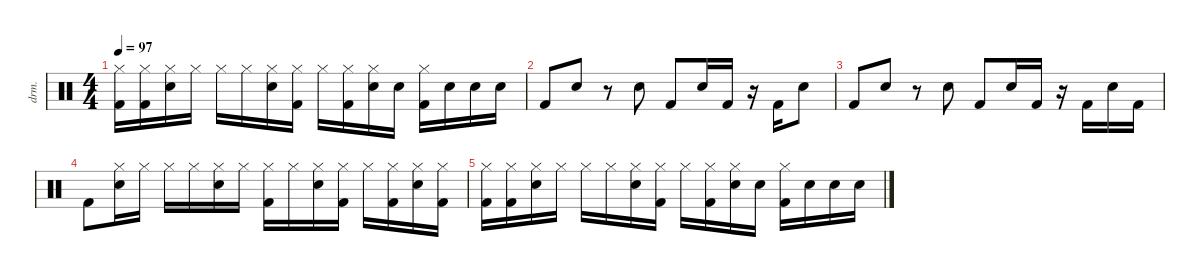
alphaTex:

\defaultSystemsLayout 4
\hideDynamics
\bracketExtendMode nobrackets
\track ("Drumkit" "drm.") {instrument percussion}
\staff {score}
\articulation defaults
\ts (4 4)
\tempo 97
\clef neutral
\ks c
("Hi-Hat (closed)" "Kick (hit) 2").16{dy mf beam Down} ("Hi-Hat (closed)" "Kick (hit) 2").16{beam Down} ("Hi-Hat (closed)" "Snare (hit) 2").16{beam Down} "Hi-Hat (closed)".16{beam Down} "Hi-Hat (closed)".16{beam Down} "Hi-Hat (closed)".16{beam Down} ("Hi-Hat (closed)" "Snare (hit) 2").16{beam Down} ("Hi-Hat (closed)" "Kick (hit) 2").16{beam Down} "Hi-Hat (closed)".16{beam Down} ("Hi-Hat (closed)" "Kick (hit) 2").16{beam Down} ("Hi-Hat (closed)" "Snare (hit) 2").16{beam Down} "Snare (hit) 2".16{beam Down} ("Hi-Hat (closed)" "Kick (hit) 2").16{beam Down} "Snare (hit) 2".16{beam Down} "Snare (hit) 2".16{beam Down} "Snare (hit) 2".16{beam Down} |
"Kick (hit) 2".8{beam Up} "Snare (hit) 2".8{beam Up} r.8{beam Down} "Snare (hit) 2".8{beam Down} "Kick (hit) 2".8{beam Up} "Snare (hit) 2".16{beam Up} "Kick (hit) 2".16{beam Up} r.16{beam Down} "Kick (hit) 2".16{beam Up} "Snare (hit) 2".8{beam Up} |
"Kick (hit) 2".8{beam Up} "Snare (hit) 2".8{beam Up} r.8{beam Down} "Snare (hit) 2".8{beam Down} "Kick (hit) 2".8{beam Up} "Snare (hit) 2".16{beam Up} "Kick (hit) 2".16{beam Up} r.16{beam Down} "Kick (hit) 2".16{beam Up} "Snare (hit) 2".16{beam Up} "Kick (hit) 2".16{beam Up} |
"Kick (hit) 2".8{beam Down} ("Snare (hit) 2" "Hi-Hat (closed)").16{beam Down} "Hi-Hat (closed)".16{beam Down} "Hi-Hat (closed)".16{beam Down} "Hi-Hat (closed)".16{beam Down} ("Snare (hit) 2" "Hi-Hat (closed)").16{beam Down} "Hi-Hat (closed)".16{beam Down} ("Kick (hit) 2" "Hi-Hat (closed)").16{beam Down} "Hi-Hat (closed)".16{beam Down} ("Snare (hit) 2" "Hi-Hat (closed)").16{beam Down} ("Kick (hit) 2" "Hi-Hat (closed)").16{beam Down} "Hi-Hat (closed)".16{beam Down} ("Kick (hit) 2" "Hi-Hat (closed)").16{beam Down} ("Snare (hit) 2" "Hi-Hat (closed)").16{beam Down} ("Kick (hit) 2" "Hi-Hat (closed)").16{beam Down} |
("Hi-Hat (closed)" "Kick (hit) 2").16{beam Down} ("Hi-Hat (closed)" "Kick (hit) 2").16{beam Down} ("Hi-Hat (closed)" "Snare (hit) 2").16{beam Down} "Hi-Hat (closed)".16{beam Down} "Hi-Hat (closed)".16{beam Down} "Hi-Hat (closed)".16{beam Down} ("Hi-Hat (closed)" "Snare (hit) 2").16{beam Down} ("Hi-Hat (closed)" "Kick (hit) 2").16{beam Down} "Hi-Hat (closed)".16{beam Down} ("Hi-Hat (closed)" "Kick (hit) 2").16{beam Down} ("Hi-Hat (closed)" "Snare (hit) 2").16{beam Down} "Snare (hit) 2".16{beam Down} ("Hi-Hat (closed)" "Kick (hit) 2").16{beam Down} "Snare (hit) 2".16{beam Down} "Snare (hit) 2".16{beam Down} "Snare (hit) 2".16{beam Down}
